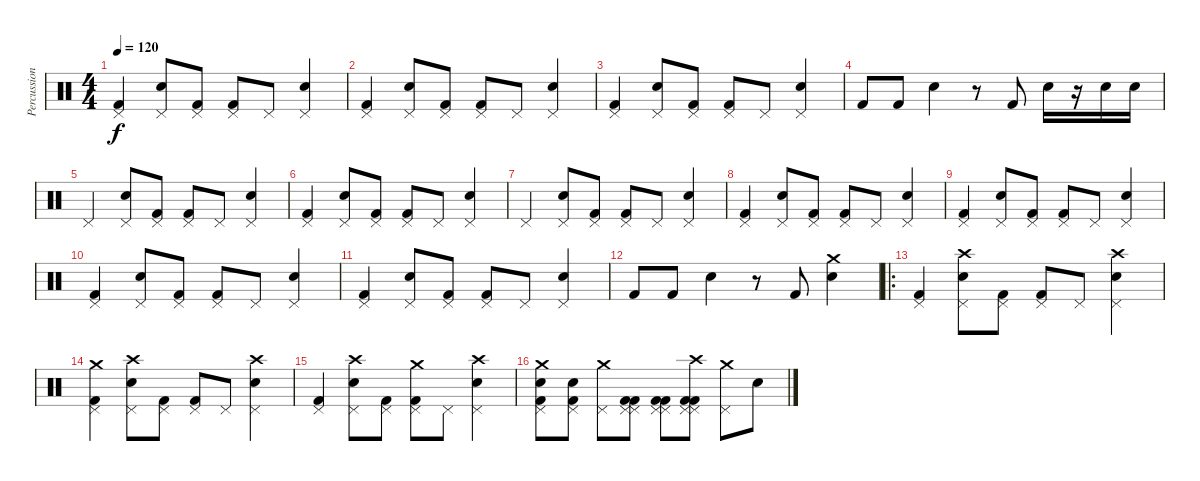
\track ("Percussion" "Percussion") {instrument percussion}
\staff {score}
\articulation defaults
\ts (4 4)
\tempo 120
\clef neutral
\ks c
("Pedal Hi-Hat (hit)" "Kick (hit) 2").4{dy f} ("Pedal Hi-Hat (hit)" "Electric Snare (hit)").8 ("Pedal Hi-Hat (hit)" "Kick (hit) 2").8 ("Pedal Hi-Hat (hit)" "Kick (hit) 2").8 "Pedal Hi-Hat (hit)".8 ("Pedal Hi-Hat (hit)" "Electric Snare (hit)").4 |
("Pedal Hi-Hat (hit)" "Kick (hit) 2").4 ("Pedal Hi-Hat (hit)" "Electric Snare (hit)").8 ("Pedal Hi-Hat (hit)" "Kick (hit) 2").8 ("Pedal Hi-Hat (hit)" "Kick (hit) 2").8 "Pedal Hi-Hat (hit)".8 ("Pedal Hi-Hat (hit)" "Electric Snare (hit)").4 |
("Pedal Hi-Hat (hit)" "Kick (hit) 2").4 ("Pedal Hi-Hat (hit)" "Electric Snare (hit)").8 ("Pedal Hi-Hat (hit)" "Kick (hit) 2").8 ("Pedal Hi-Hat (hit)" "Kick (hit) 2").8 "Pedal Hi-Hat (hit)".8 ("Pedal Hi-Hat (hit)" "Electric Snare (hit)").4 |
"Kick (hit) 2".8 "Kick (hit) 2".8 "Electric Snare (hit)".4 r.8 "Kick (hit) 2".8 "Electric Snare (hit)".16 r.16 "Electric Snare (hit)".16 "Electric Snare (hit)".16 |
"Pedal Hi-Hat (hit)".4 ("Pedal Hi-Hat (hit)" "Electric Snare (hit)").8 ("Pedal Hi-Hat (hit)" "Kick (hit) 2").8 ("Pedal Hi-Hat (hit)" "Kick (hit) 2").8 "Pedal Hi-Hat (hit)".8 ("Pedal Hi-Hat (hit)" "Electric Snare (hit)").4 |
("Pedal Hi-Hat (hit)" "Kick (hit) 2").4 ("Pedal Hi-Hat (hit)" "Electric Snare (hit)").8 ("Pedal Hi-Hat (hit)" "Kick (hit) 2").8 ("Pedal Hi-Hat (hit)" "Kick (hit) 2").8 "Pedal Hi-Hat (hit)".8 ("Pedal Hi-Hat (hit)" "Electric Snare (hit)").4 |
"Pedal Hi-Hat (hit)".4 ("Pedal Hi-Hat (hit)" "Electric Snare (hit)").8 ("Pedal Hi-Hat (hit)" "Kick (hit) 2").8 ("Pedal Hi-Hat (hit)" "Kick (hit) 2").8 "Pedal Hi-Hat (hit)".8 ("Pedal Hi-Hat (hit)" "Electric Snare (hit)").4 |
("Pedal Hi-Hat (hit)" "Kick (hit) 2").4 ("Pedal Hi-Hat (hit)" "Electric Snare (hit)").8 ("Pedal Hi-Hat (hit)" "Kick (hit) 2").8 ("Pedal Hi-Hat (hit)" "Kick (hit) 2").8 "Pedal Hi-Hat (hit)".8 ("Pedal Hi-Hat (hit)" "Electric Snare (hit)").4 |
("Pedal Hi-Hat (hit)" "Kick (hit) 2").4 ("Pedal Hi-Hat (hit)" "Electric Snare (hit)").8 ("Pedal Hi-Hat (hit)" "Kick (hit) 2").8 ("Pedal Hi-Hat (hit)" "Kick (hit) 2").8 "Pedal Hi-Hat (hit)".8 ("Pedal Hi-Hat (hit)" "Electric Snare (hit)").4 |
("Pedal Hi-Hat (hit)" "Kick (hit) 2").4 ("Pedal Hi-Hat (hit)" "Electric Snare (hit)").8 ("Pedal Hi-Hat (hit)" "Kick (hit) 2").8 ("Pedal Hi-Hat (hit)" "Kick (hit) 2").8 "Pedal Hi-Hat (hit)".8 ("Pedal Hi-Hat (hit)" "Electric Snare (hit)").4 |
("Pedal Hi-Hat (hit)" "Kick (hit) 2").4 ("Pedal Hi-Hat (hit)" "Electric Snare (hit)").8 ("Pedal Hi-Hat (hit)" "Kick (hit) 2").8 ("Pedal Hi-Hat (hit)" "Kick (hit) 2").8 "Pedal Hi-Hat (hit)".8 ("Pedal Hi-Hat (hit)" "Electric Snare (hit)").4 |
"Kick (hit) 2".8 "Kick (hit) 2".8 "Electric Snare (hit)".4 r.8 "Kick (hit) 2".8 ("Crash medium (hit)" "Electric Snare (hit)").4 |
\ro
("Pedal Hi-Hat (hit)" "Kick (hit) 2").4 ("Pedal Hi-Hat (hit)" "Crash high (hit)" "Electric Snare (hit)").8 ("Pedal Hi-Hat (hit)" "Kick (hit) 2").8 ("Pedal Hi-Hat (hit)" "Kick (hit) 2").8 "Pedal Hi-Hat (hit)".8 ("Pedal Hi-Hat (hit)" "Electric Snare (hit)" "Crash high (hit)").4 |
("Pedal Hi-Hat (hit)" "Crash medium (hit)" "Kick (hit) 2").4 ("Pedal Hi-Hat (hit)" "Crash high (hit)" "Electric Snare (hit)").8 ("Pedal Hi-Hat (hit)" "Kick (hit) 2").8 ("Pedal Hi-Hat (hit)" "Kick (hit) 2").8 "Pedal Hi-Hat (hit)".8 ("Pedal Hi-Hat (hit)" "Electric Snare (hit)" "Crash high (hit)").4 |
("Pedal Hi-Hat (hit)" "Kick (hit) 2").4 ("Pedal Hi-Hat (hit)" "Crash high (hit)" "Electric Snare (hit)").8 ("Pedal Hi-Hat (hit)" "Kick (hit) 2").8 ("Pedal Hi-Hat (hit)" "Crash medium (hit)" "Kick (hit) 2").8 "Pedal Hi-Hat (hit)".8 ("Pedal Hi-Hat (hit)" "Electric Snare (hit)" "Crash high (hit)").4 |
("Pedal Hi-Hat (hit)" "Crash medium (hit)" "Electric Snare (hit)" "Kick (hit) 2").8 ("Pedal Hi-Hat (hit)" "Electric Snare (hit)" "Kick (hit) 2").8 ("Pedal Hi-Hat (hit)" "Crash medium (hit)").8 ("Pedal Hi-Hat (hit)" "Pedal Hi-Hat (hit)" "Kick (hit) 2" "Kick (hit) 2").8 ("Pedal Hi-Hat (hit)" "Pedal Hi-Hat (hit)" "Kick (hit) 2" "Kick (hit) 2").8 ("Pedal Hi-Hat (hit)" "Crash high (hit)" "Pedal Hi-Hat (hit)" "Kick (hit) 2" "Kick (hit) 2").8 ("Pedal Hi-Hat (hit)" "Crash medium (hit)").8 "Snare (hit)"{x}.8
